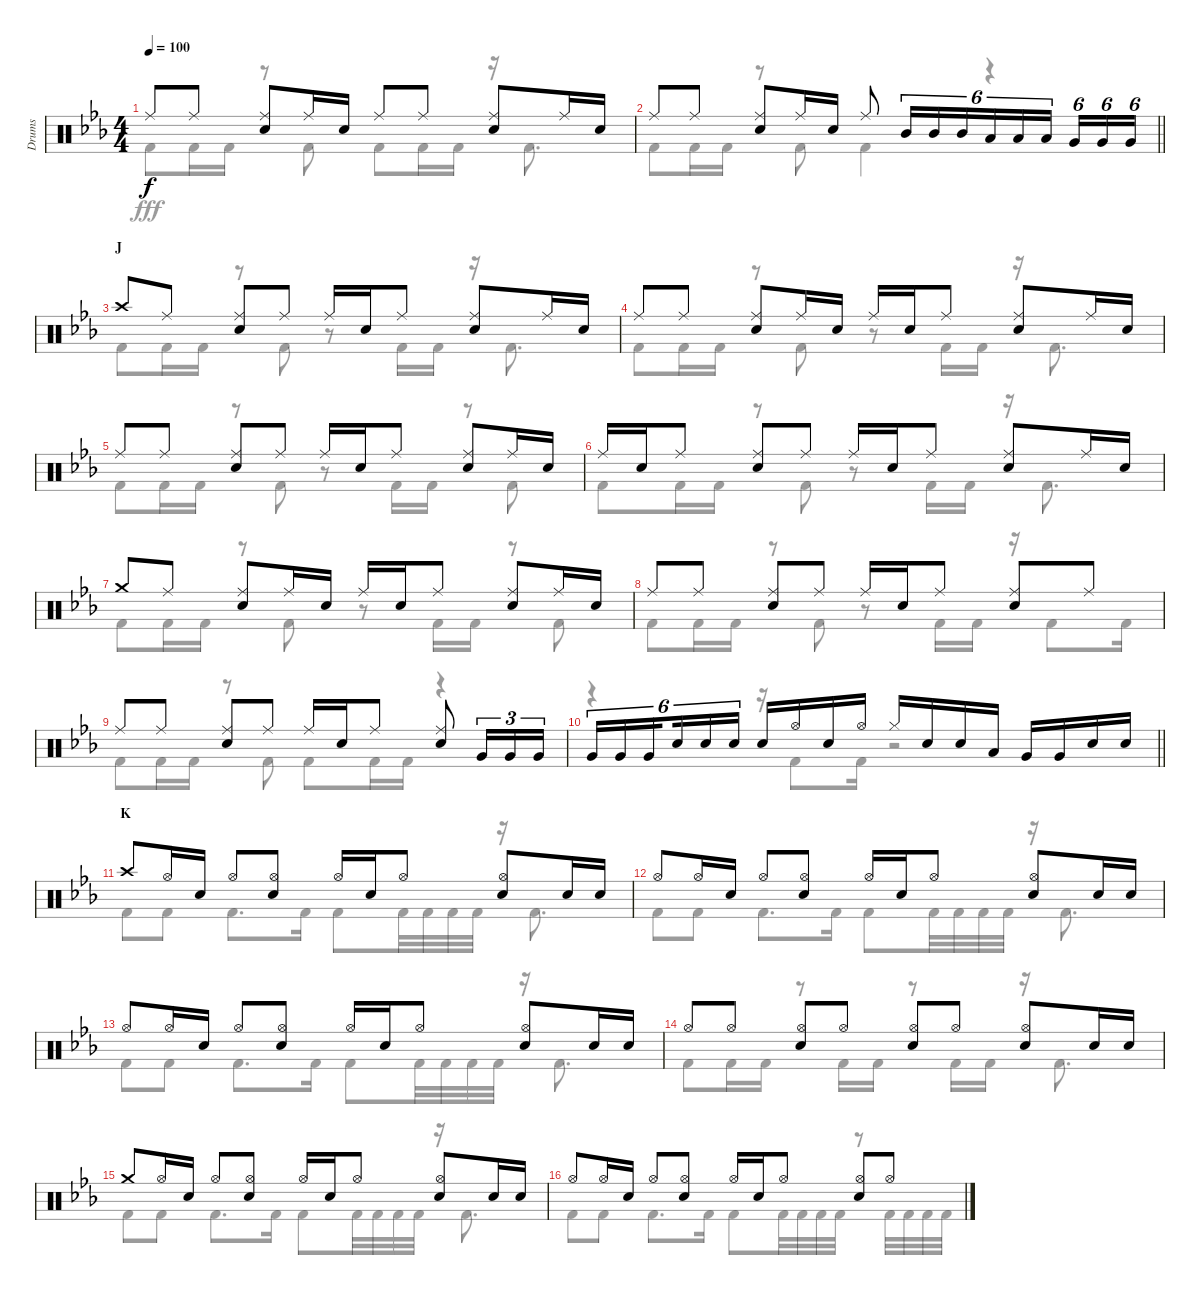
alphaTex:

\track ("Drums" "Drums") {instrument percussion}
\staff {score}
\articulation defaults
\voice
\ts (4 4)
\tempo 100
\clef neutral
\ks eb "Ride (middle)".8{dy f} "Ride (middle)".8
("Ride (middle)" "Snare (hit) 2").8 "Ride (middle)".16 "Snare (hit) 2".16 "Ride (middle)".8 "Ride (middle)".8 ("Ride (middle)" "Snare (hit) 2").8 "Ride (middle)".16 "Snare (hit) 2".16 |
\barLineRight lightlight "Ride (middle)".8 "Ride (middle)".8
("Ride (middle)" "Snare (hit) 2").8 "Ride (middle)".16 "Snare (hit) 2".16 "Ride (middle)".8 "Mid Tom (hit)".16{tu (6 4)} "Mid Tom (hit)".16{tu (6 4)} "Mid Tom (hit)".16{tu (6 4)} "Low Tom (hit)".16{tu (6 4)} "Low Tom (hit)".16{tu (6 4)} "Low Tom (hit)".16{tu (6 4) beam splitsecondary} "Very Low Tom (hit)".16{tu (6 4)} "Very Low Tom (hit)".16{tu (6 4)} "Very Low Tom (hit)".16{tu (6 4)} |
\section ("" "J")
"Crash high (hit)".8 "Ride (middle)".8 ("Ride (middle)" "Snare (hit) 2").8 "Ride (middle)".8 "Ride (middle)".16 "Snare (hit) 2".16 "Ride (middle)".8 ("Ride (middle)" "Snare (hit) 2").8 "Ride (middle)".16 "Snare (hit) 2".16 |
"Ride (middle)".8 "Ride (middle)".8 ("Ride (middle)" "Snare (hit) 2").8 "Ride (middle)".16 "Snare (hit) 2".16 "Ride (middle)".16 "Snare (hit) 2".16 "Ride (middle)".8 ("Ride (middle)" "Snare (hit) 2").8 "Ride (middle)".16 "Snare (hit) 2".16 |
"Ride (middle)".8 "Ride (middle)".8 ("Ride (middle)" "Snare (hit) 2").8 "Ride (middle)".8 "Ride (middle)".16 "Snare (hit) 2".16 "Ride (middle)".8 ("Ride (middle)" "Snare (hit) 2").8 "Ride (middle)".16 "Snare (hit) 2".16 |
"Ride (middle)".16 "Snare (hit) 2".16 "Ride (middle)".8 ("Ride (middle)" "Snare (hit) 2").8 "Ride (middle)".8 "Ride (middle)".16 "Snare (hit) 2".16 "Ride (middle)".8 ("Ride (middle)" "Snare (hit) 2").8 "Ride (middle)".16 "Snare (hit) 2".16 |
"Crash medium (hit)".8 "Ride (middle)".8 ("Ride (middle)" "Snare (hit) 2").8 "Ride (middle)".16 "Snare (hit) 2".16 "Ride (middle)".16 "Snare (hit) 2".16 "Ride (middle)".8 ("Ride (middle)" "Snare (hit) 2").8 "Ride (middle)".16 "Snare (hit) 2".16 |
"Ride (middle)".8 "Ride (middle)".8 ("Ride (middle)" "Snare (hit) 2").8 "Ride (middle)".8 "Ride (middle)".16 "Snare (hit) 2".16 "Ride (middle)".8 ("Ride (middle)" "Snare (hit) 2").8 "Ride (middle)".8 |
"Ride (middle)".8 "Ride (middle)".8 ("Ride (middle)" "Snare (hit) 2").8 "Ride (middle)".8 "Ride (middle)".16 "Snare (hit) 2".16 "Ride (middle)".8 ("Ride (middle)" "Snare (hit) 2").8 "Very Low Tom (hit)".16{tu (3 2)} "Very Low Tom (hit)".16{tu (3 2)} "Very Low Tom (hit)".16{tu (3 2)} |
\barLineRight lightlight "Very Low Tom (hit)".16{tu (6 4)} "Very Low Tom (hit)".16{tu (6 4)} "Very Low Tom (hit)".16{tu (6 4) beam splitsecondary} "Snare (hit) 2".16{tu (6 4)} "Snare (hit) 2".16{tu (6 4)} "Snare (hit) 2".16{tu (6 4)} "Snare (hit) 2".16 "Hi-Hat (open)".16 "Snare (hit) 2".16 "Hi-Hat (open)".16 "Hi-Hat (closed)".16 "Snare (hit) 2".16 "Snare (hit) 2".16 "Low Tom (hit)".16 "Very Low Tom (hit)".16 "Very Low Tom (hit)".16 "Snare (hit) 2".16 "Snare (hit) 2".16
|
\section ("" "K")
"Crash high (hit)".8 "Hi-Hat (open)".16 "Snare (hit) 2".16 "Hi-Hat (open)".8 ("Hi-Hat (open)" "Snare (hit) 2").8 "Hi-Hat (open)".16 "Snare (hit) 2".16 "Hi-Hat (open)".8 ("Hi-Hat (open)" "Snare (hit) 2").8 "Snare (hit) 2".16 "Snare (hit) 2".16 |
"Hi-Hat (open)".8 "Hi-Hat (open)".16 "Snare (hit) 2".16 "Hi-Hat (open)".8 ("Hi-Hat (open)" "Snare (hit) 2").8 "Hi-Hat (open)".16 "Snare (hit) 2".16 "Hi-Hat (open)".8 ("Hi-Hat (open)" "Snare (hit) 2").8 "Snare (hit) 2".16 "Snare (hit) 2".16 |
"Hi-Hat (open)".8 "Hi-Hat (open)".16 "Snare (hit) 2".16 "Hi-Hat (open)".8 ("Hi-Hat (open)" "Snare (hit) 2").8 "Hi-Hat (open)".16 "Snare (hit) 2".16 "Hi-Hat (open)".8 ("Hi-Hat (open)" "Snare (hit) 2").8 "Snare (hit) 2".16 "Snare (hit) 2".16 |
"Hi-Hat (open)".8 "Hi-Hat (open)".8 ("Hi-Hat (open)" "Snare (hit) 2").8 "Hi-Hat (open)".8 ("Hi-Hat (open)" "Snare (hit) 2").8 "Hi-Hat (open)".8 ("Hi-Hat (open)" "Snare (hit) 2").8 "Snare (hit) 2".16 "Snare (hit) 2".16 |
"Crash medium (hit)".8 "Hi-Hat (open)".16 "Snare (hit) 2".16 "Hi-Hat (open)".8 ("Hi-Hat (open)" "Snare (hit) 2").8 "Hi-Hat (open)".16 "Snare (hit) 2".16 "Hi-Hat (open)".8 ("Hi-Hat (open)" "Snare (hit) 2").8 "Snare (hit) 2".16 "Snare (hit) 2".16 |
"Hi-Hat (open)".8 "Hi-Hat (open)".16 "Snare (hit) 2".16 "Hi-Hat (open)".8 ("Hi-Hat (open)" "Snare (hit) 2").8 "Hi-Hat (open)".16 "Snare (hit) 2".16 "Hi-Hat (open)".8 ("Hi-Hat (open)" "Snare (hit) 2").8 "Hi-Hat (open)".8
\voice
\clef neutral
\ottava regular
\simile none
\ks eb "Kick (hit) 2".8{dy fff} "Kick (hit) 2".16 "Kick (hit) 2".16
r.8 "Kick (hit) 2".8 "Kick (hit) 2".8 "Kick (hit) 2".16 "Kick (hit) 2".16 r.16 "Kick (hit) 2".8{d} |
\barLineRight lightlight "Kick (hit) 2".8 "Kick (hit) 2".16 "Kick (hit) 2".16
r.8 "Kick (hit) 2".8 "Kick (hit) 2".4 r.4 |
"Kick (hit) 2".8 "Kick (hit) 2".16 "Kick (hit) 2".16 r.8 "Kick (hit) 2".8 r.8 "Kick (hit) 2".16 "Kick (hit) 2".16 r.16 "Kick (hit) 2".8{d} |
"Kick (hit) 2".8 "Kick (hit) 2".16 "Kick (hit) 2".16 r.8 "Kick (hit) 2".8 r.8 "Kick (hit) 2".16 "Kick (hit) 2".16 r.16 "Kick (hit) 2".8{d} |
"Kick (hit) 2".8 "Kick (hit) 2".16 "Kick (hit) 2".16 r.8 "Kick (hit) 2".8 r.8 "Kick (hit) 2".16 "Kick (hit) 2".16 r.8 "Kick (hit) 2".8 |
"Kick (hit) 2".8 "Kick (hit) 2".16 "Kick (hit) 2".16 r.8 "Kick (hit) 2".8 r.8 "Kick (hit) 2".16 "Kick (hit) 2".16 r.16 "Kick (hit) 2".8{d} |
"Kick (hit) 2".8 "Kick (hit) 2".16 "Kick (hit) 2".16 r.8 "Kick (hit) 2".8 r.8 "Kick (hit) 2".16 "Kick (hit) 2".16 r.8 "Kick (hit) 2".8 |
"Kick (hit) 2".8 "Kick (hit) 2".16 "Kick (hit) 2".16 r.8 "Kick (hit) 2".8 r.8 "Kick (hit) 2".16 "Kick (hit) 2".16 r.16 "Kick (hit) 2".8 "Kick (hit) 2".16 |
"Kick (hit) 2".8 "Kick (hit) 2".16 "Kick (hit) 2".16 r.8 "Kick (hit) 2".8 "Kick (hit) 2".8 "Kick (hit) 2".16 "Kick (hit) 2".16 r.4 |
\barLineRight lightlight
r.4 r.16 "Kick (hit) 2".8 "Kick (hit) 2".16 r.2 |
"Kick (hit) 2".8 "Kick (hit) 2".8 "Kick (hit) 2".8{d} "Kick (hit) 2".16 "Kick (hit) 2".8 "Kick (hit) 2".32 "Kick (hit) 2".32 "Kick (hit) 2".32 "Kick (hit) 2".32 r.16 "Kick (hit) 2".8{d} |
"Kick (hit) 2".8 "Kick (hit) 2".8 "Kick (hit) 2".8{d} "Kick (hit) 2".16 "Kick (hit) 2".8 "Kick (hit) 2".32 "Kick (hit) 2".32 "Kick (hit) 2".32 "Kick (hit) 2".32 r.16 "Kick (hit) 2".8{d} |
"Kick (hit) 2".8 "Kick (hit) 2".8 "Kick (hit) 2".8{d} "Kick (hit) 2".16 "Kick (hit) 2".8 "Kick (hit) 2".32 "Kick (hit) 2".32 "Kick (hit) 2".32 "Kick (hit) 2".32 r.16 "Kick (hit) 2".8{d} |
"Kick (hit) 2".8 "Kick (hit) 2".16 "Kick (hit) 2".16 r.8 "Kick (hit) 2".16 "Kick (hit) 2".16 r.8 "Kick (hit) 2".16 "Kick (hit) 2".16 r.16 "Kick (hit) 2".8{d} |
"Kick (hit) 2".8 "Kick (hit) 2".8 "Kick (hit) 2".8{d} "Kick (hit) 2".16 "Kick (hit) 2".8 "Kick (hit) 2".32 "Kick (hit) 2".32 "Kick (hit) 2".32 "Kick (hit) 2".32 r.16 "Kick (hit) 2".8{d} |
"Kick (hit) 2".8 "Kick (hit) 2".8 "Kick (hit) 2".8{d} "Kick (hit) 2".16 "Kick (hit) 2".8 "Kick (hit) 2".32 "Kick (hit) 2".32 "Kick (hit) 2".32 "Kick (hit) 2".32 r.8 "Kick (hit) 2".32 "Kick (hit) 2".32 "Kick (hit) 2".32 "Kick (hit) 2".32
